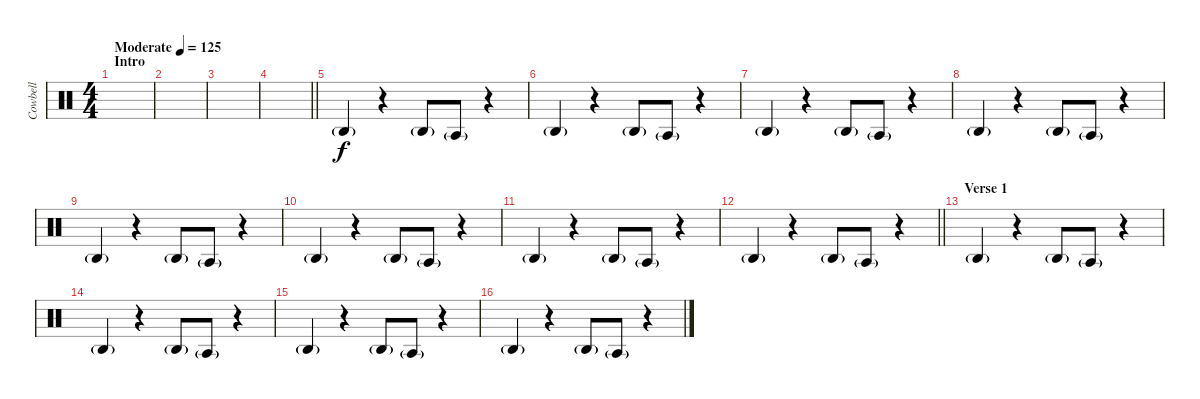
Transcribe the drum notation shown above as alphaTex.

\track ("Cowbell" "Cowbell") {instrument percussion}
\staff {score}
\articulation defaults
\ts (4 4)
\section ("" "Intro")
\tempo (125 "Moderate")
\clef neutral
\ks c
|
|
|
\barLineRight lightlight
|
\section ("" "")
"Agogo high (hit)"{g}.4 r.4 "Agogo high (hit)"{g}.8 "Agogo tow (hit)"{g}.8 r.4 |
"Agogo high (hit)"{g}.4 r.4 "Agogo high (hit)"{g}.8 "Agogo tow (hit)"{g}.8 r.4 |
"Agogo high (hit)"{g}.4 r.4 "Agogo high (hit)"{g}.8 "Agogo tow (hit)"{g}.8 r.4 |
"Agogo high (hit)"{g}.4 r.4 "Agogo high (hit)"{g}.8 "Agogo tow (hit)"{g}.8 r.4 |
"Agogo high (hit)"{g}.4 r.4 "Agogo high (hit)"{g}.8 "Agogo tow (hit)"{g}.8 r.4 |
"Agogo high (hit)"{g}.4 r.4 "Agogo high (hit)"{g}.8 "Agogo tow (hit)"{g}.8 r.4 |
"Agogo high (hit)"{g}.4 r.4 "Agogo high (hit)"{g}.8 "Agogo tow (hit)"{g}.8 r.4 |
\barLineRight lightlight "Agogo high (hit)"{g}.4
r.4 "Agogo high (hit)"{g}.8 "Agogo tow (hit)"{g}.8 r.4 |
\section ("" "Verse 1")
"Agogo high (hit)"{g}.4 r.4 "Agogo high (hit)"{g}.8 "Agogo tow (hit)"{g}.8 r.4 |
"Agogo high (hit)"{g}.4 r.4 "Agogo high (hit)"{g}.8 "Agogo tow (hit)"{g}.8 r.4 |
"Agogo high (hit)"{g}.4 r.4 "Agogo high (hit)"{g}.8 "Agogo tow (hit)"{g}.8 r.4 |
"Agogo high (hit)"{g}.4 r.4 "Agogo high (hit)"{g}.8 "Agogo tow (hit)"{g}.8 r.4
